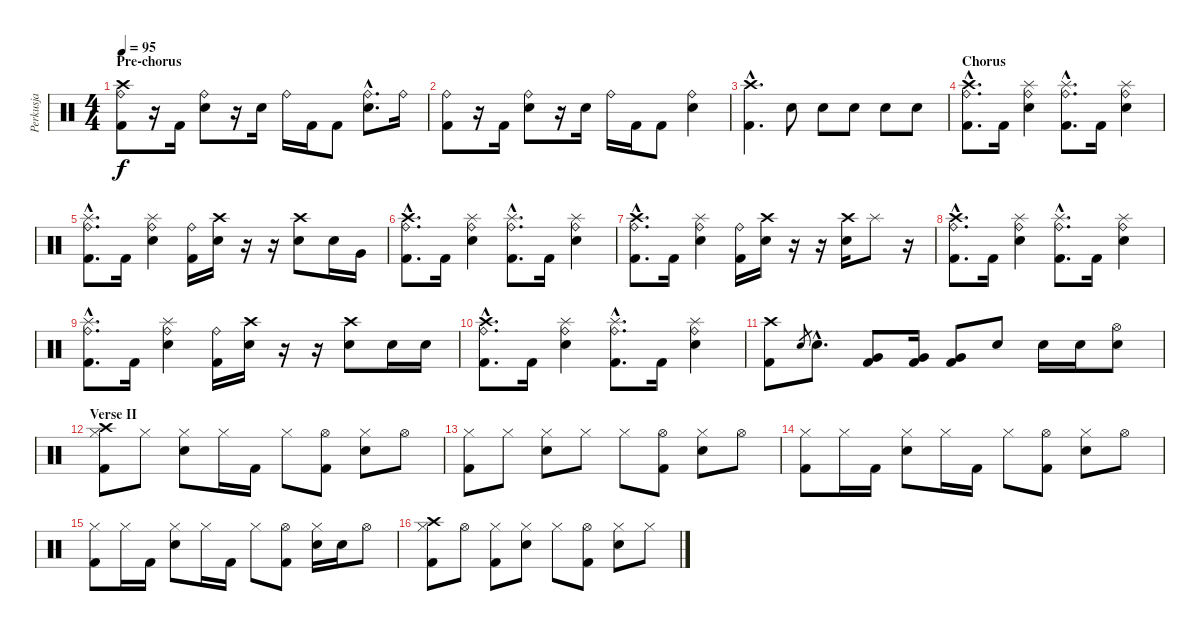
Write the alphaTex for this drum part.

\track ("Perkusja" "Perkusja") {instrument percussion}
\staff {score}
\articulation defaults
\ts (4 4)
\section ("" "Pre-chorus")
\tempo 95
\clef neutral
\ks c
("Ride (bell)" "Kick (hit) 2" "Crash high (hit)").8{dy f} r.16 "Kick (hit) 2".16 ("Ride (bell)" "Electric Snare (hit)").8 r.16 "Electric Snare (hit)".16 "Ride (bell)".16 "Kick (hit) 2".16 "Kick (hit) 2".8 ("Ride (bell)"{hac} "Electric Snare (hit)"{hac}).8{d} "Ride (bell)".16 |
("Ride (bell)" "Kick (hit) 2").8 r.16 "Kick (hit) 2".16 ("Ride (bell)" "Electric Snare (hit)").8 r.16 "Electric Snare (hit)".16 "Ride (bell)".16 "Kick (hit) 2".16 "Kick (hit) 2".8 ("Ride (bell)" "Electric Snare (hit)").4 |
("Kick (hit) 2"{hac} "Crash high (hit)"{hac}).4{d} "Electric Snare (hit)".8 "Electric Snare (hit)".8 "Electric Snare (hit)".8 "Electric Snare (hit)".8 "Electric Snare (hit)".8 |
\section ("" "Chorus")
("Kick (hit) 2"{hac} "Crash high (hit)"{hac} "Ride (bell)"{hac}).8{d} "Kick (hit) 2".16 ("Electric Snare (hit)" "Splash (hit)" "Ride (bell)").4 ("Kick (hit) 2"{hac} "Splash (hit)"{hac} "Ride (bell)"{hac}).8{d} "Kick (hit) 2".16 ("Electric Snare (hit)" "Splash (hit)" "Ride (bell)").4 |
("Kick (hit) 2"{hac} "Splash (hit)"{hac} "Ride (bell)"{hac}).8{d} "Kick (hit) 2".16 ("Electric Snare (hit)" "Splash (hit)" "Ride (bell)").4 ("Kick (hit) 2" "Ride (bell)").16 ("Electric Snare (hit)" "Crash high (hit)").16 r.16 r.16 ("Electric Snare (hit)" "Crash high (hit)").8 "Electric Snare (hit)".16 "Very Low Tom (hit)".16 |
("Kick (hit) 2"{hac} "Crash high (hit)"{hac} "Ride (bell)"{hac}).8{d} "Kick (hit) 2".16 ("Electric Snare (hit)" "Splash (hit)" "Ride (bell)").4 ("Kick (hit) 2"{hac} "Splash (hit)"{hac} "Ride (bell)"{hac}).8{d} "Kick (hit) 2".16 ("Electric Snare (hit)" "Splash (hit)" "Ride (bell)").4 |
("Kick (hit) 2"{hac} "Crash high (hit)"{hac} "Ride (bell)"{hac}).8{d} "Kick (hit) 2".16 ("Electric Snare (hit)" "Splash (hit)" "Ride (bell)").4 ("Kick (hit) 2" "Ride (bell)").16 ("Electric Snare (hit)" "Crash high (hit)").16 r.16 r.16 ("Electric Snare (hit)" "Crash high (hit)").16 "Splash (hit)".8 r.16 |
("Kick (hit) 2"{hac} "Crash high (hit)"{hac} "Ride (bell)"{hac}).8{d} "Kick (hit) 2".16 ("Electric Snare (hit)" "Splash (hit)" "Ride (bell)").4 ("Kick (hit) 2"{hac} "Splash (hit)"{hac} "Ride (bell)"{hac}).8{d} "Kick (hit) 2".16 ("Electric Snare (hit)" "Splash (hit)" "Ride (bell)").4 |
("Kick (hit) 2"{hac} "Splash (hit)"{hac} "Ride (bell)"{hac}).8{d} "Kick (hit) 2".16 ("Electric Snare (hit)" "Splash (hit)" "Ride (bell)").4 ("Kick (hit) 2" "Ride (bell)").16 ("Electric Snare (hit)" "Crash high (hit)").16 r.16 r.16 ("Electric Snare (hit)" "Crash high (hit)").8 "Electric Snare (hit)".16 "Electric Snare (hit)".16 |
("Kick (hit) 2"{hac} "Crash high (hit)"{hac} "Ride (bell)"{hac}).8{d} "Kick (hit) 2".16 ("Electric Snare (hit)" "Splash (hit)" "Ride (bell)").4 ("Kick (hit) 2"{hac} "Splash (hit)"{hac} "Ride (bell)"{hac}).8{d} "Kick (hit) 2".16 ("Electric Snare (hit)" "Splash (hit)" "Ride (bell)").4 |
("Crash high (hit)" "Kick (hit) 2").8 "Electric Snare (hit)".8{gr} "Electric Snare (hit)"{hac}.8{d} ("Kick (hit) 2" "Very Low Tom (hit)").8 ("Kick (hit) 2" "Very Low Tom (hit)").16 ("Kick (hit) 2" "Very Low Tom (hit)").8 "Electric Snare (hit)".8 "Electric Snare (hit)".16 "Electric Snare (hit)".16 ("Electric Snare (hit)" "Hi-Hat (open)").8 |
\section ("" "Verse II")
("Kick (hit) 2" "Hi-Hat (closed)" "Crash high (hit)").8 "Hi-Hat (closed)".8 ("Electric Snare (hit)" "Hi-Hat (closed)").8 "Hi-Hat (closed)".16 "Kick (hit) 2".16 "Hi-Hat (closed)".8 ("Kick (hit) 2" "Hi-Hat (open)").8 ("Electric Snare (hit)" "Hi-Hat (closed)").8 "Hi-Hat (open)".8 |
("Kick (hit) 2" "Hi-Hat (closed)").8 "Hi-Hat (closed)".8 ("Electric Snare (hit)" "Hi-Hat (closed)").8 "Hi-Hat (closed)".8 "Hi-Hat (closed)".8 ("Kick (hit) 2" "Hi-Hat (open)").8 ("Electric Snare (hit)" "Hi-Hat (closed)").8 "Hi-Hat (open)".8 |
("Kick (hit) 2" "Hi-Hat (closed)").8 "Hi-Hat (closed)".16 "Kick (hit) 2".16 ("Electric Snare (hit)" "Hi-Hat (closed)").8 "Hi-Hat (closed)".16 "Kick (hit) 2".16 "Hi-Hat (closed)".8 ("Kick (hit) 2" "Hi-Hat (open)").8 ("Electric Snare (hit)" "Hi-Hat (closed)").8 "Hi-Hat (open)".8 |
("Kick (hit) 2" "Hi-Hat (closed)").8 "Hi-Hat (closed)".16 "Kick (hit) 2".16 ("Electric Snare (hit)" "Hi-Hat (closed)").8 "Hi-Hat (closed)".16 "Kick (hit) 2".16 "Hi-Hat (closed)".8 ("Kick (hit) 2" "Hi-Hat (open)").8 ("Electric Snare (hit)" "Hi-Hat (closed)").16 "Electric Snare (hit)".16 "Hi-Hat (open)".8 |
("Kick (hit) 2" "Hi-Hat (closed)" "Crash high (hit)").8 "Hi-Hat (open)".8 ("Kick (hit) 2" "Hi-Hat (closed)").8 ("Electric Snare (hit)" "Hi-Hat (closed)").8 "Hi-Hat (closed)".8 ("Kick (hit) 2" "Hi-Hat (open)").8 ("Electric Snare (hit)" "Hi-Hat (closed)").8 "Hi-Hat (closed)".8
